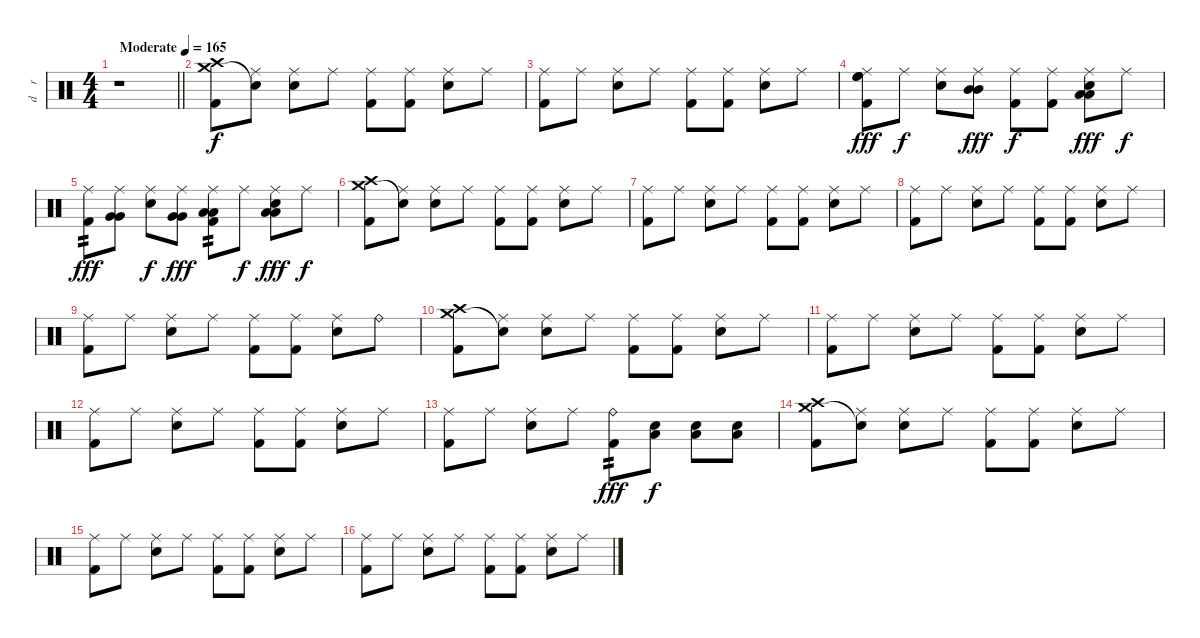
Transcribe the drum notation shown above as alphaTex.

\track ("d    r    u    m    s" "d    r    ") {instrument percussion}
\staff {score}
\articulation defaults
\ts (4 4)
\tempo (165 "Moderate")
\clef neutral
\barLineRight lightlight
\ks c
r.1{dy f} |
("Crash high (hit)" "Crash medium (hit)" "Kick (hit) 2").8 ("Ride (middle)" "Snare (hit)"{t}).8 ("Ride (middle)" "Electric Snare (hit)").8 "Ride (middle)".8 ("Ride (middle)" "Kick (hit) 2").8 ("Ride (middle)" "Kick (hit) 2").8 ("Ride (middle)" "Electric Snare (hit)").8 "Ride (middle)".8 |
("Ride (middle)" "Kick (hit) 2").8 "Ride (middle)".8 ("Ride (middle)" "Electric Snare (hit)").8 "Ride (middle)".8 ("Ride (middle)" "Kick (hit) 2").8 ("Ride (middle)" "Kick (hit) 2").8 ("Ride (middle)" "Electric Snare (hit)").8 "Ride (middle)".8 |
("Ride (middle)" "High Floor Tom (hit)" "High Floor Tom (hit)" "Kick (hit) 2").8{dy fff} "Ride (middle)".8{dy f} ("Ride (middle)" "Electric Snare (hit)").8 ("Ride (middle)" "Mid Tom (hit)" "Mid Tom (hit)").8{dy fff} ("Ride (middle)" "Kick (hit) 2").8{dy f} ("Ride (middle)" "Kick (hit) 2").8 ("Ride (middle)" "Low Tom (hit)" "Low Tom (hit)" "Electric Snare (hit)").8{dy fff} "Ride (middle)".8{dy f} |
("Ride (middle)" "Kick (hit) 2").8{tp 2 dy fff} ("Ride (middle)" "Very Low Tom (hit)" "Very Low Tom (hit)").8 ("Ride (middle)" "Electric Snare (hit)").8{dy f} ("Ride (middle)" "Very Low Tom (hit)" "Very Low Tom (hit)").8{dy fff} ("Ride (middle)" "Low Floor Tom (hit)" "Low Floor Tom (hit)" "Kick (hit) 2").8{tp 2} "Ride (middle)".8{dy f} ("Ride (middle)" "Low Floor Tom (hit)" "Low Floor Tom (hit)" "Electric Snare (hit)").8{dy fff} "Ride (middle)".8{dy f} |
("Crash high (hit)" "Crash medium (hit)" "Kick (hit) 2").8 ("Ride (middle)" "Snare (hit)"{t}).8 ("Ride (middle)" "Electric Snare (hit)").8 "Ride (middle)".8 ("Ride (middle)" "Kick (hit) 2").8 ("Ride (middle)" "Kick (hit) 2").8 ("Ride (middle)" "Electric Snare (hit)").8 "Ride (middle)".8 |
("Ride (middle)" "Kick (hit) 2").8 "Ride (middle)".8 ("Ride (middle)" "Electric Snare (hit)").8 "Ride (middle)".8 ("Ride (middle)" "Kick (hit) 2").8 ("Ride (middle)" "Kick (hit) 2").8 ("Ride (middle)" "Electric Snare (hit)").8 "Ride (middle)".8 |
("Ride (middle)" "Kick (hit) 2").8 "Ride (middle)".8 ("Ride (middle)" "Electric Snare (hit)").8 "Ride (middle)".8 ("Ride (middle)" "Kick (hit) 2").8 ("Ride (middle)" "Kick (hit) 2").8 ("Ride (middle)" "Electric Snare (hit)").8 "Ride (middle)".8 |
("Ride (middle)" "Kick (hit) 2").8 "Ride (middle)".8 ("Ride (middle)" "Electric Snare (hit)").8 "Ride (middle)".8 ("Ride (middle)" "Kick (hit) 2").8 ("Ride (middle)" "Kick (hit) 2").8 ("Ride (middle)" "Electric Snare (hit)").8 "Ride (bell)".8 |
("Crash high (hit)" "Crash medium (hit)" "Kick (hit) 2").8 ("Ride (middle)" "Snare (hit)"{t}).8 ("Ride (middle)" "Electric Snare (hit)").8 "Ride (middle)".8 ("Ride (middle)" "Kick (hit) 2").8 ("Ride (middle)" "Kick (hit) 2").8 ("Ride (middle)" "Electric Snare (hit)").8 "Ride (middle)".8 |
("Ride (middle)" "Kick (hit) 2").8 "Ride (middle)".8 ("Ride (middle)" "Electric Snare (hit)").8 "Ride (middle)".8 ("Ride (middle)" "Kick (hit) 2").8 ("Ride (middle)" "Kick (hit) 2").8 ("Ride (middle)" "Electric Snare (hit)").8 "Ride (middle)".8 |
("Ride (middle)" "Kick (hit) 2").8 "Ride (middle)".8 ("Ride (middle)" "Electric Snare (hit)").8 "Ride (middle)".8 ("Ride (middle)" "Kick (hit) 2").8 ("Ride (middle)" "Kick (hit) 2").8 ("Ride (middle)" "Electric Snare (hit)").8 "Ride (middle)".8 |
("Ride (middle)" "Kick (hit) 2").8 "Ride (middle)".8 ("Ride (middle)" "Electric Snare (hit)").8 "Ride (middle)".8 ("Ride (bell)" "Kick (hit) 2").8{tp 2 dy fff} ("Low Floor Tom (hit)" "Electric Snare (hit)").8{dy f} ("Low Floor Tom (hit)" "Electric Snare (hit)").8 ("Low Floor Tom (hit)" "Electric Snare (hit)").8 |
("Crash high (hit)" "Crash medium (hit)" "Kick (hit) 2").8 ("Ride (middle)" "Snare (hit)"{t}).8 ("Ride (middle)" "Electric Snare (hit)").8 "Ride (middle)".8 ("Ride (middle)" "Kick (hit) 2").8 ("Ride (middle)" "Kick (hit) 2").8 ("Ride (middle)" "Electric Snare (hit)").8 "Ride (middle)".8 |
("Ride (middle)" "Kick (hit) 2").8 "Ride (middle)".8 ("Ride (middle)" "Electric Snare (hit)").8 "Ride (middle)".8 ("Ride (middle)" "Kick (hit) 2").8 ("Ride (middle)" "Kick (hit) 2").8 ("Ride (middle)" "Electric Snare (hit)").8 "Ride (middle)".8 |
("Ride (middle)" "Kick (hit) 2").8 "Ride (middle)".8 ("Ride (middle)" "Electric Snare (hit)").8 "Ride (middle)".8 ("Ride (middle)" "Kick (hit) 2").8 ("Ride (middle)" "Kick (hit) 2").8 ("Ride (middle)" "Electric Snare (hit)").8 "Ride (middle)".8
